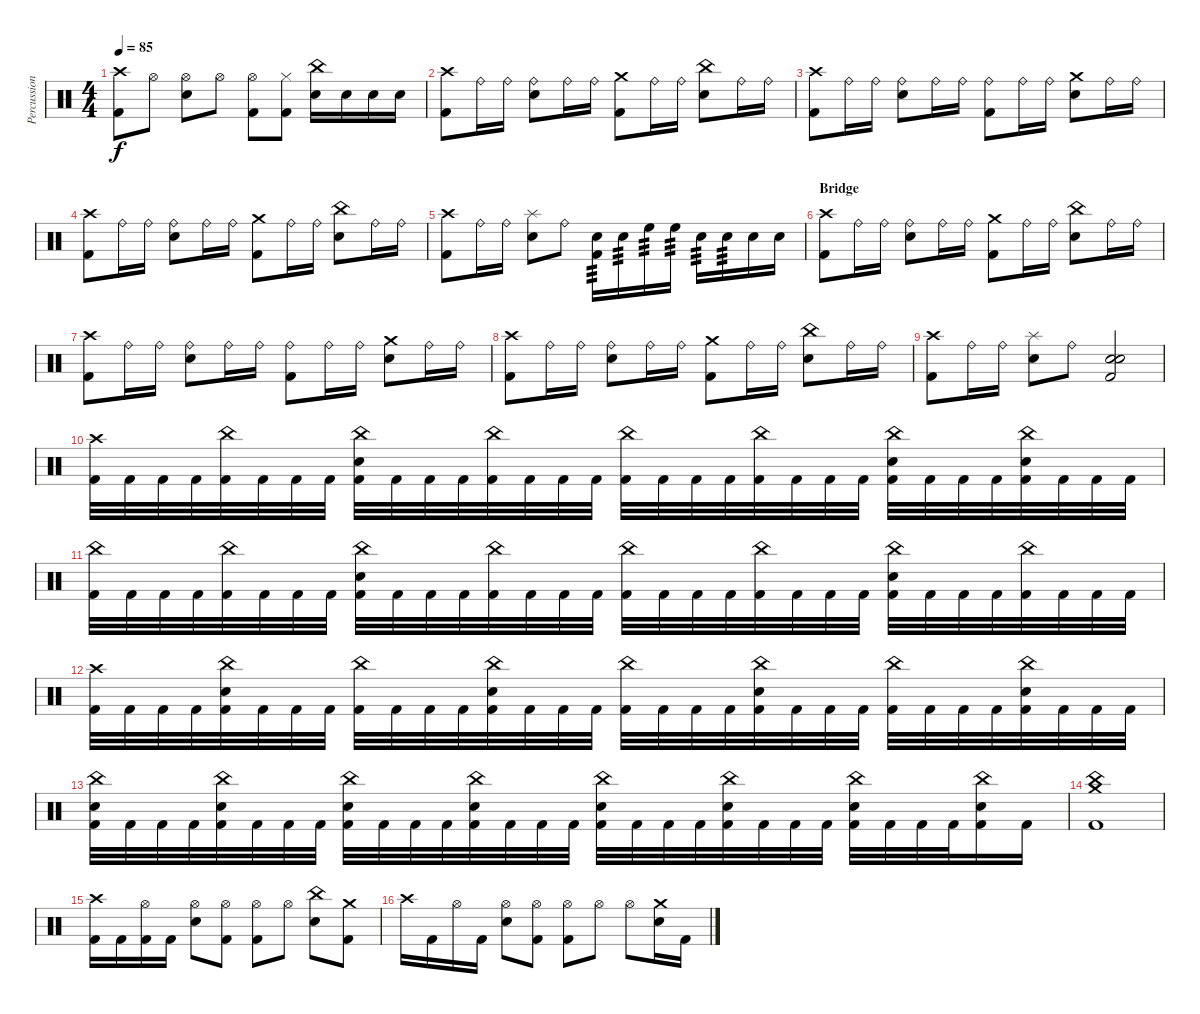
\track ("Percussions" "Percussion") {instrument percussion}
\staff {score}
\articulation defaults
\ts (4 4)
\tempo 85
\clef neutral
\ks c
("Crash high (hit)" "Kick (hit) 2").8{dy f} "Hi-Hat (open)".8 ("Hi-Hat (open)" "Snare (hit) 2").8 "Hi-Hat (open)".8 ("Hi-Hat (open)" "Kick (hit) 2").8 ("Hi-Hat (closed)" "Kick (hit) 2").8 ("China (hit)" "Snare (hit) 2").16 "Snare (hit) 2".16 "Snare (hit) 2".16 "Snare (hit) 2".16 |
("Crash high (hit)" "Kick (hit) 2").8 "Ride (bell)".16 "Ride (bell)".16 ("Ride (bell)" "Snare (hit) 2").8 "Ride (bell)".16 "Ride (bell)".16 ("Crash medium (hit)" "Kick (hit) 2").8 "Ride (bell)".16 "Ride (bell)".16 ("China (hit)" "Snare (hit) 2").8 "Ride (bell)".16 "Ride (bell)".16 |
("Crash high (hit)" "Kick (hit) 2").8 "Ride (bell)".16 "Ride (bell)".16 ("Ride (bell)" "Snare (hit) 2").8 "Ride (bell)".16 "Ride (bell)".16 ("Ride (bell)" "Kick (hit) 2").8 "Ride (bell)".16 "Ride (bell)".16 ("Crash medium (hit)" "Snare (hit) 2").8 "Ride (bell)".16 "Ride (bell)".16 |
("Crash high (hit)" "Kick (hit) 2").8 "Ride (bell)".16 "Ride (bell)".16 ("Ride (bell)" "Snare (hit) 2").8 "Ride (bell)".16 "Ride (bell)".16 ("Crash medium (hit)" "Kick (hit) 2").8 "Ride (bell)".16 "Ride (bell)".16 ("China (hit)" "Snare (hit) 2").8 "Ride (bell)".16 "Ride (bell)".16 |
("Crash high (hit)" "Kick (hit) 2").8 "Ride (bell)".16 "Ride (bell)".16 ("Splash (hit)" "Snare (hit) 2").8 "Ride (bell)".8 ("Snare (hit) 2" "Kick (hit) 2").16{tp 3} "Snare (hit) 2".16{tp 3} "High Floor Tom (hit)".16{tp 3} "High Floor Tom (hit)".16{tp 3} "Snare (hit) 2".16{tp 3} "Snare (hit) 2".16{tp 3} "Snare (hit) 2".16 "Snare (hit) 2".16 |
\section ("" "Bridge")
("Crash high (hit)" "Kick (hit) 2").8 "Ride (bell)".16 "Ride (bell)".16 ("Ride (bell)" "Snare (hit) 2").8 "Ride (bell)".16 "Ride (bell)".16 ("Crash medium (hit)" "Kick (hit) 2").8 "Ride (bell)".16 "Ride (bell)".16 ("China (hit)" "Snare (hit) 2").8 "Ride (bell)".16 "Ride (bell)".16 |
("Crash high (hit)" "Kick (hit) 2").8 "Ride (bell)".16 "Ride (bell)".16 ("Ride (bell)" "Snare (hit) 2").8 "Ride (bell)".16 "Ride (bell)".16 ("Ride (bell)" "Kick (hit) 2").8 "Ride (bell)".16 "Ride (bell)".16 ("Crash medium (hit)" "Snare (hit) 2").8 "Ride (bell)".16 "Ride (bell)".16 |
("Crash high (hit)" "Kick (hit) 2").8 "Ride (bell)".16 "Ride (bell)".16 ("Ride (bell)" "Snare (hit) 2").8 "Ride (bell)".16 "Ride (bell)".16 ("Crash medium (hit)" "Kick (hit) 2").8 "Ride (bell)".16 "Ride (bell)".16 ("China (hit)" "Snare (hit) 2").8 "Ride (bell)".16 "Ride (bell)".16 |
("Crash high (hit)" "Kick (hit) 2").8 "Ride (bell)".16 "Ride (bell)".16 ("Splash (hit)" "Snare (hit) 2").8 "Ride (bell)".8 ("Snare (hit) 2" "Snare (hit) 2" "Kick (hit) 2").2 |
("Crash high (hit)" "Kick (hit) 2").32 "Kick (hit) 2".32 "Kick (hit) 2".32 "Kick (hit) 2".32 ("China (hit)" "Kick (hit) 2").32 "Kick (hit) 2".32 "Kick (hit) 2".32 "Kick (hit) 2".32 ("China (hit)" "Snare (hit) 2" "Kick (hit) 2").32 "Kick (hit) 2".32 "Kick (hit) 2".32 "Kick (hit) 2".32 ("China (hit)" "Kick (hit) 2").32 "Kick (hit) 2".32 "Kick (hit) 2".32 "Kick (hit) 2".32 ("China (hit)" "Kick (hit) 2").32 "Kick (hit) 2".32 "Kick (hit) 2".32 "Kick (hit) 2".32 ("China (hit)" "Kick (hit) 2").32 "Kick (hit) 2".32 "Kick (hit) 2".32 "Kick (hit) 2".32 ("China (hit)" "Snare (hit) 2" "Kick (hit) 2").32 "Kick (hit) 2".32 "Kick (hit) 2".32 "Kick (hit) 2".32 ("China (hit)" "Snare (hit) 2" "Kick (hit) 2").32 "Kick (hit) 2".32 "Kick (hit) 2".32 "Kick (hit) 2".32 |
("China (hit)" "Kick (hit) 2").32 "Kick (hit) 2".32 "Kick (hit) 2".32 "Kick (hit) 2".32 ("China (hit)" "Kick (hit) 2").32 "Kick (hit) 2".32 "Kick (hit) 2".32 "Kick (hit) 2".32 ("China (hit)" "Snare (hit) 2" "Kick (hit) 2").32 "Kick (hit) 2".32 "Kick (hit) 2".32 "Kick (hit) 2".32 ("China (hit)" "Kick (hit) 2").32 "Kick (hit) 2".32 "Kick (hit) 2".32 "Kick (hit) 2".32 ("China (hit)" "Kick (hit) 2").32 "Kick (hit) 2".32 "Kick (hit) 2".32 "Kick (hit) 2".32 ("China (hit)" "Kick (hit) 2").32 "Kick (hit) 2".32 "Kick (hit) 2".32 "Kick (hit) 2".32 ("China (hit)" "Snare (hit) 2" "Kick (hit) 2").32 "Kick (hit) 2".32 "Kick (hit) 2".32 "Kick (hit) 2".32 ("China (hit)" "Kick (hit) 2").32 "Kick (hit) 2".32 "Kick (hit) 2".32 "Kick (hit) 2".32 |
("Crash high (hit)" "Kick (hit) 2").32 "Kick (hit) 2".32 "Kick (hit) 2".32 "Kick (hit) 2".32 ("China (hit)" "Snare (hit) 2" "Kick (hit) 2").32 "Kick (hit) 2".32 "Kick (hit) 2".32 "Kick (hit) 2".32 ("China (hit)" "Kick (hit) 2").32 "Kick (hit) 2".32 "Kick (hit) 2".32 "Kick (hit) 2".32 ("China (hit)" "Snare (hit) 2" "Kick (hit) 2").32 "Kick (hit) 2".32 "Kick (hit) 2".32 "Kick (hit) 2".32 ("China (hit)" "Kick (hit) 2").32 "Kick (hit) 2".32 "Kick (hit) 2".32 "Kick (hit) 2".32 ("China (hit)" "Snare (hit) 2" "Kick (hit) 2").32 "Kick (hit) 2".32 "Kick (hit) 2".32 "Kick (hit) 2".32 ("China (hit)" "Kick (hit) 2").32 "Kick (hit) 2".32 "Kick (hit) 2".32 "Kick (hit) 2".32 ("China (hit)" "Snare (hit) 2" "Kick (hit) 2").32 "Kick (hit) 2".32 "Kick (hit) 2".32 "Kick (hit) 2".32 |
("China (hit)" "Snare (hit) 2" "Kick (hit) 2").32 "Kick (hit) 2".32 "Kick (hit) 2".32 "Kick (hit) 2".32 ("China (hit)" "Snare (hit) 2" "Kick (hit) 2").32 "Kick (hit) 2".32 "Kick (hit) 2".32 "Kick (hit) 2".32 ("China (hit)" "Snare (hit) 2" "Kick (hit) 2").32 "Kick (hit) 2".32 "Kick (hit) 2".32 "Kick (hit) 2".32 ("China (hit)" "Snare (hit) 2" "Kick (hit) 2").32 "Kick (hit) 2".32 "Kick (hit) 2".32 "Kick (hit) 2".32 ("China (hit)" "Snare (hit) 2" "Kick (hit) 2").32 "Kick (hit) 2".32 "Kick (hit) 2".32 "Kick (hit) 2".32 ("China (hit)" "Snare (hit) 2" "Kick (hit) 2").32 "Kick (hit) 2".32 "Kick (hit) 2".32 "Kick (hit) 2".32 ("China (hit)" "Snare (hit) 2" "Kick (hit) 2").32 "Kick (hit) 2".32 "Kick (hit) 2".32 "Kick (hit) 2".32 ("China (hit)" "Snare (hit) 2" "Kick (hit) 2").16 "Kick (hit) 2".16 |
("Crash medium (hit)" "China (hit)" "Kick (hit) 2").1 |
("Crash high (hit)" "Kick (hit) 2").16 "Kick (hit) 2".16 ("Hi-Hat (open)" "Kick (hit) 2").16 "Kick (hit) 2".16 ("Hi-Hat (open)" "Snare (hit) 2").8 ("Hi-Hat (open)" "Kick (hit) 2").8 ("Hi-Hat (open)" "Kick (hit) 2").8 "Hi-Hat (open)".8 ("China (hit)" "Snare (hit) 2").8 ("Crash medium (hit)" "Kick (hit) 2").8 |
"Crash high (hit)".16 "Kick (hit) 2".16 "Hi-Hat (open)".16 "Kick (hit) 2".16 ("Hi-Hat (open)" "Snare (hit) 2").8 ("Hi-Hat (open)" "Kick (hit) 2").8 ("Hi-Hat (open)" "Kick (hit) 2").8 "Hi-Hat (open)".8 "Hi-Hat (open)".8 ("Crash medium (hit)" "Snare (hit) 2").16 "Kick (hit) 2".16
